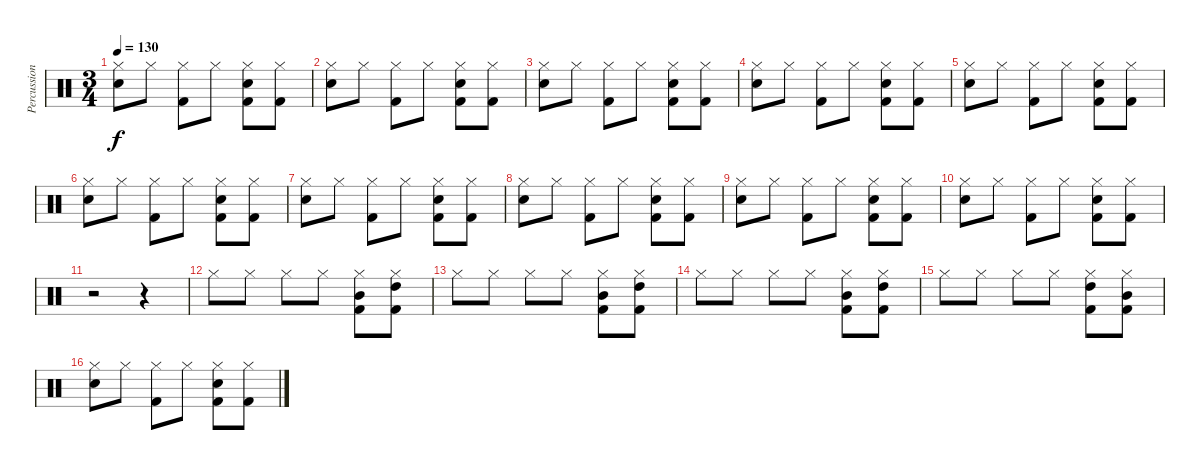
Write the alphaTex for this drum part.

\track ("Percussion" "Percussion") {instrument percussion}
\staff {score}
\articulation defaults
\ts (3 4)
\tempo 130
\clef neutral
\ks c
("Hi-Hat (closed)" "Snare (hit) 2").8{dy f} "Hi-Hat (closed)".8 ("Hi-Hat (closed)" "Kick (hit) 2").8 "Hi-Hat (closed)".8 ("Hi-Hat (closed)" "Snare (hit) 2" "Kick (hit) 2").8 ("Hi-Hat (closed)" "Kick (hit) 2").8 |
("Hi-Hat (closed)" "Snare (hit) 2").8 "Hi-Hat (closed)".8 ("Hi-Hat (closed)" "Kick (hit) 2").8 "Hi-Hat (closed)".8 ("Hi-Hat (closed)" "Snare (hit) 2" "Kick (hit) 2").8 ("Hi-Hat (closed)" "Kick (hit) 2").8 |
("Hi-Hat (closed)" "Snare (hit) 2").8 "Hi-Hat (closed)".8 ("Hi-Hat (closed)" "Kick (hit) 2").8 "Hi-Hat (closed)".8 ("Hi-Hat (closed)" "Snare (hit) 2" "Kick (hit) 2").8 ("Hi-Hat (closed)" "Kick (hit) 2").8 |
("Hi-Hat (closed)" "Snare (hit) 2").8 "Hi-Hat (closed)".8 ("Hi-Hat (closed)" "Kick (hit) 2").8 "Hi-Hat (closed)".8 ("Hi-Hat (closed)" "Snare (hit) 2" "Kick (hit) 2").8 ("Hi-Hat (closed)" "Kick (hit) 2").8 |
("Hi-Hat (closed)" "Snare (hit) 2").8 "Hi-Hat (closed)".8 ("Hi-Hat (closed)" "Kick (hit) 2").8 "Hi-Hat (closed)".8 ("Hi-Hat (closed)" "Snare (hit) 2" "Kick (hit) 2").8 ("Hi-Hat (closed)" "Kick (hit) 2").8 |
("Hi-Hat (closed)" "Snare (hit) 2").8 "Hi-Hat (closed)".8 ("Hi-Hat (closed)" "Kick (hit) 2").8 "Hi-Hat (closed)".8 ("Hi-Hat (closed)" "Snare (hit) 2" "Kick (hit) 2").8 ("Hi-Hat (closed)" "Kick (hit) 2").8 |
("Hi-Hat (closed)" "Snare (hit) 2").8 "Hi-Hat (closed)".8 ("Hi-Hat (closed)" "Kick (hit) 2").8 "Hi-Hat (closed)".8 ("Hi-Hat (closed)" "Snare (hit) 2" "Kick (hit) 2").8 ("Hi-Hat (closed)" "Kick (hit) 2").8 |
("Hi-Hat (closed)" "Snare (hit) 2").8 "Hi-Hat (closed)".8 ("Hi-Hat (closed)" "Kick (hit) 2").8 "Hi-Hat (closed)".8 ("Hi-Hat (closed)" "Snare (hit) 2" "Kick (hit) 2").8 ("Hi-Hat (closed)" "Kick (hit) 2").8 |
("Hi-Hat (closed)" "Snare (hit) 2").8 "Hi-Hat (closed)".8 ("Hi-Hat (closed)" "Kick (hit) 2").8 "Hi-Hat (closed)".8 ("Hi-Hat (closed)" "Snare (hit) 2" "Kick (hit) 2").8 ("Hi-Hat (closed)" "Kick (hit) 2").8 |
("Hi-Hat (closed)" "Snare (hit) 2").8 "Hi-Hat (closed)".8 ("Hi-Hat (closed)" "Kick (hit) 2").8 "Hi-Hat (closed)".8 ("Hi-Hat (closed)" "Snare (hit) 2" "Kick (hit) 2").8 ("Hi-Hat (closed)" "Kick (hit) 2").8 |
r.2 r.4 |
"Hi-Hat (closed)".8 "Hi-Hat (closed)".8 "Hi-Hat (closed)".8 "Hi-Hat (closed)".8 ("Hi-Hat (closed)" "Mid Tom (hit)" "Kick (hit) 2").8 ("Hi-Hat (closed)" "High Tom (hit)" "Kick (hit) 2").8 |
"Hi-Hat (closed)".8 "Hi-Hat (closed)".8 "Hi-Hat (closed)".8 "Hi-Hat (closed)".8 ("Hi-Hat (closed)" "Mid Tom (hit)" "Kick (hit) 2").8 ("Hi-Hat (closed)" "High Tom (hit)" "Kick (hit) 2").8 |
"Hi-Hat (closed)".8 "Hi-Hat (closed)".8 "Hi-Hat (closed)".8 "Hi-Hat (closed)".8 ("Hi-Hat (closed)" "Mid Tom (hit)" "Kick (hit) 2").8 ("Hi-Hat (closed)" "High Tom (hit)" "Kick (hit) 2").8 |
"Hi-Hat (closed)".8 "Hi-Hat (closed)".8 "Hi-Hat (closed)".8 "Hi-Hat (closed)".8 ("Hi-Hat (closed)" "High Tom (hit)" "Kick (hit) 2").8 ("Hi-Hat (closed)" "Mid Tom (hit)" "Kick (hit) 2").8 |
("Hi-Hat (closed)" "Snare (hit) 2").8 "Hi-Hat (closed)".8 ("Hi-Hat (closed)" "Kick (hit) 2").8 "Hi-Hat (closed)".8 ("Hi-Hat (closed)" "Snare (hit) 2" "Kick (hit) 2").8 ("Hi-Hat (closed)" "Kick (hit) 2").8
